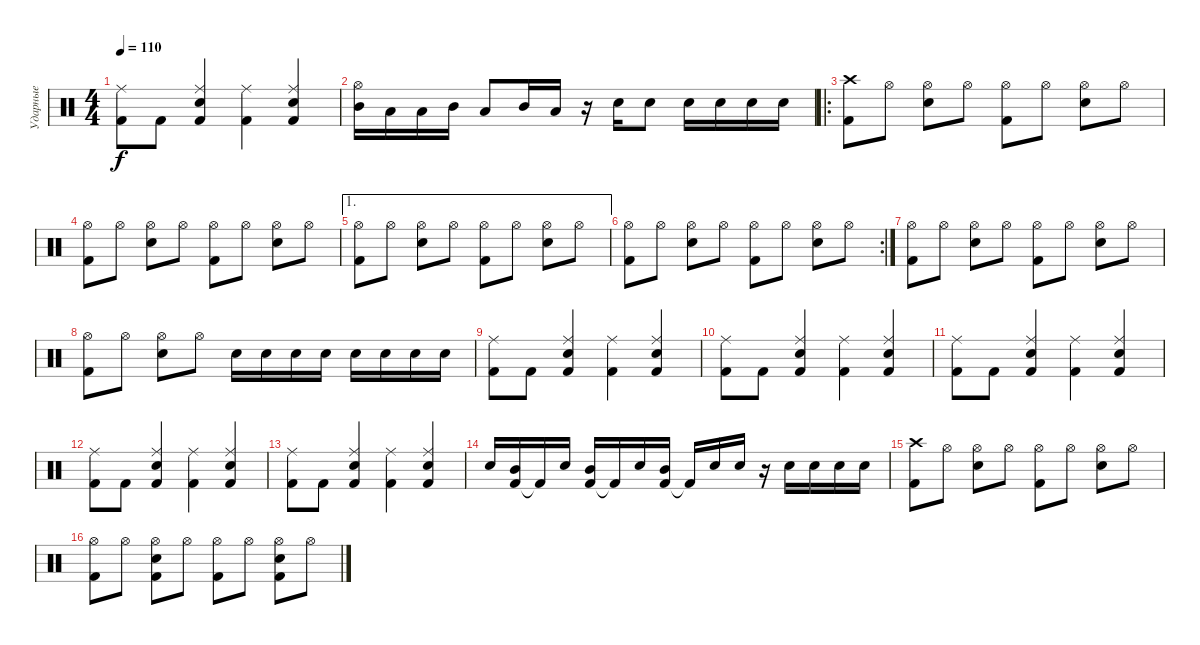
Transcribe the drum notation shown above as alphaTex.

\track ("Ударные" "Ударные") {instrument percussion}
\staff
\articulation defaults
\ts (4 4)
\tempo 110
\clef neutral
\ks c
("Kick (hit) 2" "Ride (middle)").8{dy f} "Kick (hit) 2".8 ("Kick (hit) 2" "Snare (hit) 2" "Ride (middle)").4 ("Kick (hit) 2" "Ride (middle)").4 ("Kick (hit) 2" "Snare (hit) 2" "Ride (middle)").4 |
("Hi-Hat (open)" "Mid Tom (hit)").16 "Low Tom (hit)".16 "Low Tom (hit)".16 "Mid Tom (hit)".16 "Low Tom (hit)".8 "Mid Tom (hit)".16 "Low Tom (hit)".16 r.16 "Snare (hit) 2".16 "Snare (hit) 2".8 "Snare (hit) 2".16 "Snare (hit) 2".16 "Snare (hit) 2".16 "Snare (hit) 2".16 |
\ro
("Kick (hit) 2" "Crash high (hit)").8 "Hi-Hat (open)".8 ("Snare (hit) 2" "Hi-Hat (open)").8 "Hi-Hat (open)".8 ("Kick (hit) 2" "Hi-Hat (open)").8 "Hi-Hat (open)".8 ("Snare (hit) 2" "Hi-Hat (open)").8 "Hi-Hat (open)".8 |
("Kick (hit) 2" "Hi-Hat (open)").8 "Hi-Hat (open)".8 ("Snare (hit) 2" "Hi-Hat (open)").8 "Hi-Hat (open)".8 ("Kick (hit) 2" "Hi-Hat (open)").8 "Hi-Hat (open)".8 ("Snare (hit) 2" "Hi-Hat (open)").8 "Hi-Hat (open)".8 |
\ae 1
("Kick (hit) 2" "Hi-Hat (open)").8 "Hi-Hat (open)".8 ("Snare (hit) 2" "Hi-Hat (open)").8 "Hi-Hat (open)".8 ("Kick (hit) 2" "Hi-Hat (open)").8 "Hi-Hat (open)".8 ("Snare (hit) 2" "Hi-Hat (open)").8 "Hi-Hat (open)".8 |
\rc 2
("Kick (hit) 2" "Hi-Hat (open)").8 "Hi-Hat (open)".8 ("Snare (hit) 2" "Hi-Hat (open)").8 "Hi-Hat (open)".8 ("Kick (hit) 2" "Hi-Hat (open)").8 "Hi-Hat (open)".8 ("Snare (hit) 2" "Hi-Hat (open)").8 "Hi-Hat (open)".8 |
("Kick (hit) 2" "Hi-Hat (open)").8 "Hi-Hat (open)".8 ("Snare (hit) 2" "Hi-Hat (open)").8 "Hi-Hat (open)".8 ("Kick (hit) 2" "Hi-Hat (open)").8 "Hi-Hat (open)".8 ("Snare (hit) 2" "Hi-Hat (open)").8 "Hi-Hat (open)".8 |
("Kick (hit) 2" "Hi-Hat (open)").8 "Hi-Hat (open)".8 ("Snare (hit) 2" "Hi-Hat (open)").8 "Hi-Hat (open)".8 "Snare (hit) 2".16 "Snare (hit) 2".16 "Snare (hit) 2".16 "Snare (hit) 2".16 "Snare (hit) 2".16 "Snare (hit) 2".16 "Snare (hit) 2".16 "Snare (hit) 2".16 |
("Kick (hit) 2" "Ride (middle)").8 "Kick (hit) 2".8 ("Kick (hit) 2" "Snare (hit) 2" "Ride (middle)").4 ("Kick (hit) 2" "Ride (middle)").4 ("Kick (hit) 2" "Snare (hit) 2" "Ride (middle)").4 |
("Kick (hit) 2" "Ride (middle)").8 "Kick (hit) 2".8 ("Kick (hit) 2" "Snare (hit) 2" "Ride (middle)").4 ("Kick (hit) 2" "Ride (middle)").4 ("Kick (hit) 2" "Snare (hit) 2" "Ride (middle)").4 |
("Kick (hit) 2" "Ride (middle)").8 "Kick (hit) 2".8 ("Kick (hit) 2" "Snare (hit) 2" "Ride (middle)").4 ("Kick (hit) 2" "Ride (middle)").4 ("Kick (hit) 2" "Snare (hit) 2" "Ride (middle)").4 |
("Kick (hit) 2" "Ride (middle)").8 "Kick (hit) 2".8 ("Kick (hit) 2" "Snare (hit) 2" "Ride (middle)").4 ("Kick (hit) 2" "Ride (middle)").4 ("Kick (hit) 2" "Snare (hit) 2" "Ride (middle)").4 |
("Kick (hit) 2" "Ride (middle)").8 "Kick (hit) 2".8 ("Kick (hit) 2" "Snare (hit) 2" "Ride (middle)").4 ("Kick (hit) 2" "Ride (middle)").4 ("Kick (hit) 2" "Snare (hit) 2" "Ride (middle)").4 |
"Snare (hit) 2".16 ("Kick (hit) 2" "Mid Tom (hit)").16 "Kick (hit) 2"{t}.16 "Snare (hit) 2".16 ("Kick (hit) 2" "Mid Tom (hit)").16 "Kick (hit) 2"{t}.16 "Snare (hit) 2".16 ("Kick (hit) 2" "Mid Tom (hit)").16 "Kick (hit) 2"{t}.16 "Snare (hit) 2".16 "Snare (hit) 2".16 r.16 "Snare (hit) 2".16 "Snare (hit) 2".16 "Snare (hit) 2".16 "Snare (hit) 2".16 |
("Kick (hit) 2" "Crash high (hit)").8 "Hi-Hat (open)".8 ("Snare (hit) 2" "Hi-Hat (open)").8 "Hi-Hat (open)".8 ("Kick (hit) 2" "Hi-Hat (open)").8 "Hi-Hat (open)".8 ("Snare (hit) 2" "Hi-Hat (open)").8 "Hi-Hat (open)".8 |
("Kick (hit) 2" "Hi-Hat (open)").8 "Hi-Hat (open)".8 ("Kick (hit) 2" "Snare (hit) 2" "Hi-Hat (open)").8 "Hi-Hat (open)".8 ("Kick (hit) 2" "Hi-Hat (open)").8 "Hi-Hat (open)".8 ("Kick (hit) 2" "Snare (hit) 2" "Hi-Hat (open)").8 "Hi-Hat (open)".8
